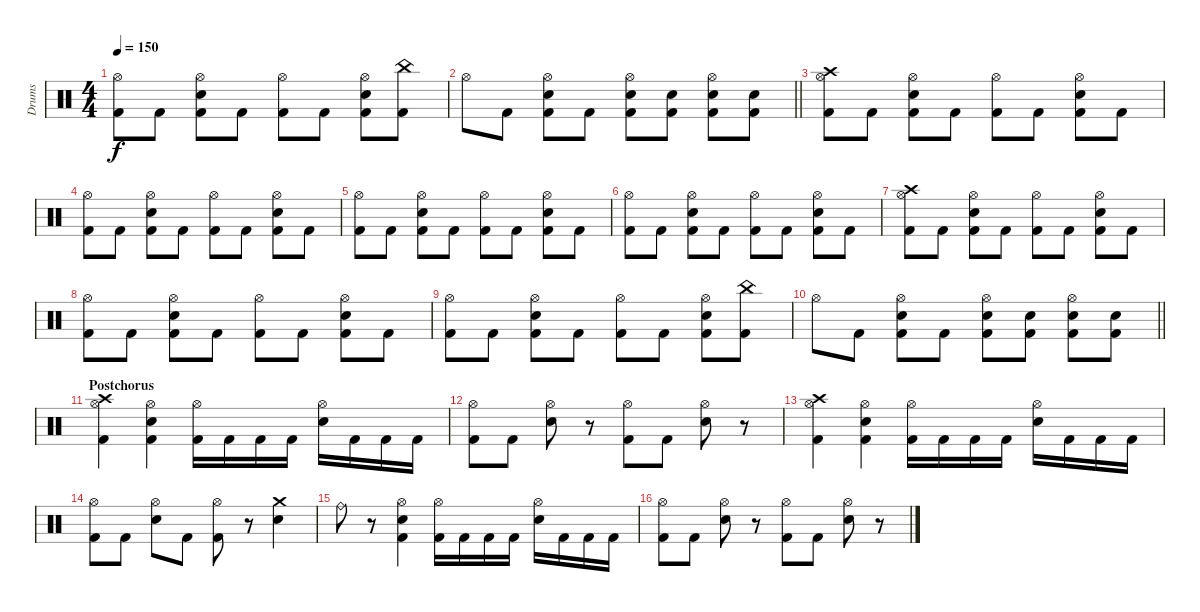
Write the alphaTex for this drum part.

\track ("Drums" "Drums") {instrument percussion}
\staff {score}
\articulation defaults
\ts (4 4)
\tempo 150
\clef neutral
\ks c
("Hi-Hat (open)" "Kick (hit) 2").8{dy f} "Kick (hit) 2".8 ("Hi-Hat (open)" "Snare (hit) 2" "Kick (hit) 2").8 "Kick (hit) 2".8 ("Hi-Hat (open)" "Kick (hit) 2").8 "Kick (hit) 2".8 ("Hi-Hat (open)" "Snare (hit) 2" "Kick (hit) 2").8 ("China (hit)" "Kick (hit) 2").8 |
\barLineRight lightlight "Hi-Hat (open)".8 "Kick (hit) 2".8
("Hi-Hat (open)" "Snare (hit) 2" "Kick (hit) 2").8 "Kick (hit) 2".8 ("Hi-Hat (open)" "Snare (hit) 2" "Kick (hit) 2").8 ("Snare (hit) 2" "Kick (hit) 2").8 ("Hi-Hat (open)" "Snare (hit) 2" "Kick (hit) 2").8 ("Snare (hit) 2" "Kick (hit) 2").8 |
("Crash high (hit)" "Hi-Hat (open)" "Kick (hit) 2").8 "Kick (hit) 2".8 ("Hi-Hat (open)" "Snare (hit) 2" "Kick (hit) 2").8 "Kick (hit) 2".8 ("Hi-Hat (open)" "Kick (hit) 2").8 "Kick (hit) 2".8 ("Hi-Hat (open)" "Snare (hit) 2" "Kick (hit) 2").8 "Kick (hit) 2".8 |
("Hi-Hat (open)" "Kick (hit) 2").8 "Kick (hit) 2".8 ("Hi-Hat (open)" "Snare (hit) 2" "Kick (hit) 2").8 "Kick (hit) 2".8 ("Hi-Hat (open)" "Kick (hit) 2").8 "Kick (hit) 2".8 ("Hi-Hat (open)" "Snare (hit) 2" "Kick (hit) 2").8 "Kick (hit) 2".8 |
("Hi-Hat (open)" "Kick (hit) 2").8 "Kick (hit) 2".8 ("Hi-Hat (open)" "Snare (hit) 2" "Kick (hit) 2").8 "Kick (hit) 2".8 ("Hi-Hat (open)" "Kick (hit) 2").8 "Kick (hit) 2".8 ("Hi-Hat (open)" "Snare (hit) 2" "Kick (hit) 2").8 "Kick (hit) 2".8 |
("Hi-Hat (open)" "Kick (hit) 2").8 "Kick (hit) 2".8 ("Hi-Hat (open)" "Snare (hit) 2" "Kick (hit) 2").8 "Kick (hit) 2".8 ("Hi-Hat (open)" "Kick (hit) 2").8 "Kick (hit) 2".8 ("Hi-Hat (open)" "Snare (hit) 2" "Kick (hit) 2").8 "Kick (hit) 2".8 |
("Crash high (hit)" "Hi-Hat (open)" "Kick (hit) 2").8 "Kick (hit) 2".8 ("Hi-Hat (open)" "Snare (hit) 2" "Kick (hit) 2").8 "Kick (hit) 2".8 ("Hi-Hat (open)" "Kick (hit) 2").8 "Kick (hit) 2".8 ("Hi-Hat (open)" "Snare (hit) 2" "Kick (hit) 2").8 "Kick (hit) 2".8 |
("Hi-Hat (open)" "Kick (hit) 2").8 "Kick (hit) 2".8 ("Hi-Hat (open)" "Snare (hit) 2" "Kick (hit) 2").8 "Kick (hit) 2".8 ("Hi-Hat (open)" "Kick (hit) 2").8 "Kick (hit) 2".8 ("Hi-Hat (open)" "Snare (hit) 2" "Kick (hit) 2").8 "Kick (hit) 2".8 |
("Hi-Hat (open)" "Kick (hit) 2").8 "Kick (hit) 2".8 ("Hi-Hat (open)" "Snare (hit) 2" "Kick (hit) 2").8 "Kick (hit) 2".8 ("Hi-Hat (open)" "Kick (hit) 2").8 "Kick (hit) 2".8 ("Hi-Hat (open)" "Snare (hit) 2" "Kick (hit) 2").8 ("China (hit)" "Kick (hit) 2").8 |
\barLineRight lightlight "Hi-Hat (open)".8 "Kick (hit) 2".8
("Hi-Hat (open)" "Snare (hit) 2" "Kick (hit) 2").8 "Kick (hit) 2".8 ("Hi-Hat (open)" "Snare (hit) 2" "Kick (hit) 2").8 ("Snare (hit) 2" "Kick (hit) 2").8 ("Hi-Hat (open)" "Snare (hit) 2" "Kick (hit) 2").8 ("Snare (hit) 2" "Kick (hit) 2").8 |
\section ("" "Postchorus")
("Crash high (hit)" "Hi-Hat (open)" "Kick (hit) 2").4 ("Hi-Hat (open)" "Snare (hit) 2" "Kick (hit) 2").4 ("Hi-Hat (open)" "Kick (hit) 2").16 "Kick (hit) 2".16 "Kick (hit) 2".16 "Kick (hit) 2".16 ("Hi-Hat (open)" "Snare (hit) 2").16 "Kick (hit) 2".16 "Kick (hit) 2".16 "Kick (hit) 2".16 |
("Hi-Hat (open)" "Kick (hit) 2").8 "Kick (hit) 2".8 ("Hi-Hat (open)" "Snare (hit) 2").8 r.8 ("Hi-Hat (open)" "Kick (hit) 2").8 "Kick (hit) 2".8 ("Hi-Hat (open)" "Snare (hit) 2").8 r.8 |
("Crash high (hit)" "Hi-Hat (open)" "Kick (hit) 2").4 ("Hi-Hat (open)" "Snare (hit) 2" "Kick (hit) 2").4 ("Hi-Hat (open)" "Kick (hit) 2").16 "Kick (hit) 2".16 "Kick (hit) 2".16 "Kick (hit) 2".16 ("Hi-Hat (open)" "Snare (hit) 2").16 "Kick (hit) 2".16 "Kick (hit) 2".16 "Kick (hit) 2".16 |
("Hi-Hat (open)" "Kick (hit) 2").8 "Kick (hit) 2".8 ("Hi-Hat (open)" "Snare (hit) 2").8 "Kick (hit) 2".8 ("Hi-Hat (open)" "Kick (hit) 2").8 r.8 ("Crash medium (hit)" "Snare (hit) 2").4 |
"Ride (bell)".8 r.8 ("Hi-Hat (open)" "Snare (hit) 2" "Kick (hit) 2").4 ("Hi-Hat (open)" "Kick (hit) 2").16 "Kick (hit) 2".16 "Kick (hit) 2".16 "Kick (hit) 2".16 ("Hi-Hat (open)" "Snare (hit) 2").16 "Kick (hit) 2".16 "Kick (hit) 2".16 "Kick (hit) 2".16 |
("Hi-Hat (open)" "Kick (hit) 2").8 "Kick (hit) 2".8 ("Hi-Hat (open)" "Snare (hit) 2").8 r.8 ("Hi-Hat (open)" "Kick (hit) 2").8 "Kick (hit) 2".8 ("Hi-Hat (open)" "Snare (hit) 2").8 r.8
